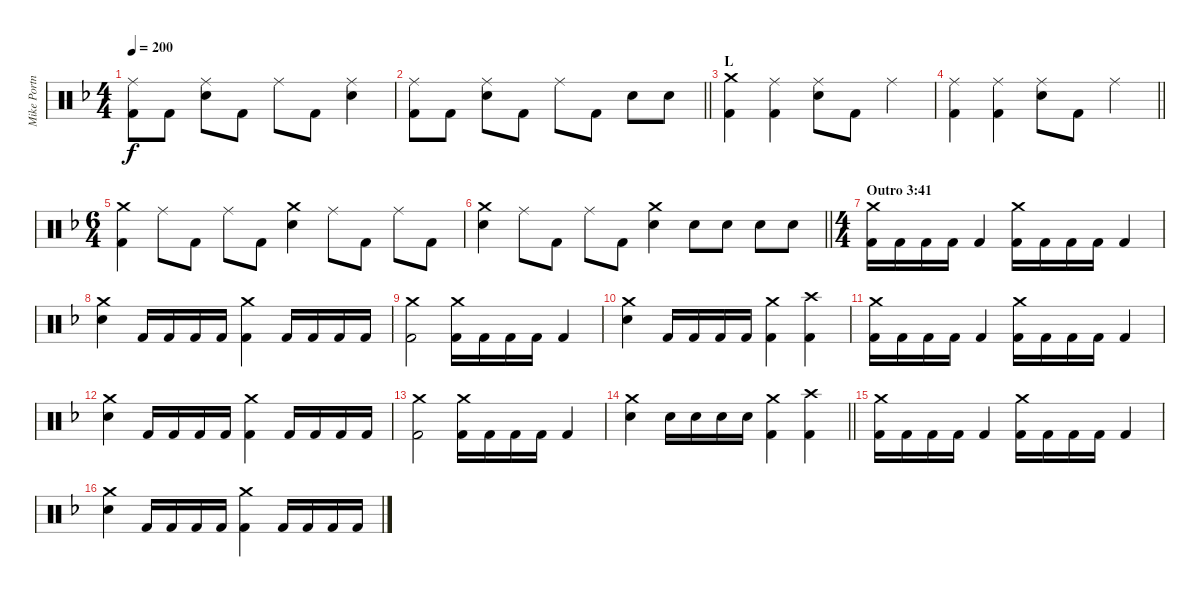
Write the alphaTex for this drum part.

\track ("Mike Portnoy (Drums)" "Mike Portn") {instrument percussion}
\staff {score}
\articulation defaults
\ts (4 4)
\tempo 200
\clef neutral
\ks f
("Ride (middle)" "Kick (hit) 2").8{dy f} "Kick (hit) 2".8 ("Ride (middle)" "Electric Snare (hit)").8 "Kick (hit) 2".8 "Ride (middle)".8 "Kick (hit) 2".8 ("Ride (middle)" "Electric Snare (hit)").4 |
\barLineRight lightlight
("Ride (middle)" "Kick (hit) 2").8 "Kick (hit) 2".8 ("Ride (middle)" "Electric Snare (hit)").8 "Kick (hit) 2".8 "Ride (middle)".8 "Kick (hit) 2".8 "Electric Snare (hit)".8 "Electric Snare (hit)".8 |
\section ("" "L")
("Crash medium (hit)" "Kick (hit) 2").4 ("Ride (middle)" "Kick (hit) 2").4 ("Ride (middle)" "Electric Snare (hit)").8 "Kick (hit) 2".8 "Ride (middle)".4 |
\barLineRight lightlight
("Ride (middle)" "Kick (hit) 2").4 ("Ride (middle)" "Kick (hit) 2").4 ("Ride (middle)" "Electric Snare (hit)").8 "Kick (hit) 2".8 "Ride (middle)".4 |
\ts (6 4)
\section ("" "")
("Crash medium (hit)" "Kick (hit) 2").4 "Ride (middle)".8 "Kick (hit) 2".8 "Ride (middle)".8 "Kick (hit) 2".8 ("Crash medium (hit)" "Electric Snare (hit)").4 "Ride (middle)".8 "Kick (hit) 2".8 "Ride (middle)".8 "Kick (hit) 2".8 |
\barLineRight lightlight
("Crash medium (hit)" "Electric Snare (hit)").4 "Ride (middle)".8 "Kick (hit) 2".8 "Ride (middle)".8 "Kick (hit) 2".8 ("Crash medium (hit)" "Electric Snare (hit)").4 "Electric Snare (hit)".8 "Electric Snare (hit)".8 "Electric Snare (hit)".8 "Electric Snare (hit)".8 |
\ts (4 4)
\section ("" "Outro 3:41")
("Crash medium (hit)" "Kick (hit) 2").16 "Kick (hit) 2".16 "Kick (hit) 2".16 "Kick (hit) 2".16 "Kick (hit) 2".4 ("Crash medium (hit)" "Kick (hit) 2").16 "Kick (hit) 2".16 "Kick (hit) 2".16 "Kick (hit) 2".16 "Kick (hit) 2".4 |
("Crash medium (hit)" "Electric Snare (hit)").4 "Kick (hit) 2".16 "Kick (hit) 2".16 "Kick (hit) 2".16 "Kick (hit) 2".16 ("Crash medium (hit)" "Kick (hit) 2").4 "Kick (hit) 2".16 "Kick (hit) 2".16 "Kick (hit) 2".16 "Kick (hit) 2".16 |
("Crash medium (hit)" "Kick (hit) 2").2 ("Crash medium (hit)" "Kick (hit) 2").16 "Kick (hit) 2".16 "Kick (hit) 2".16 "Kick (hit) 2".16 "Kick (hit) 2".4 |
("Crash medium (hit)" "Electric Snare (hit)").4 "Kick (hit) 2".16 "Kick (hit) 2".16 "Kick (hit) 2".16 "Kick (hit) 2".16 ("Crash medium (hit)" "Kick (hit) 2").4 ("Crash high (hit)" "Kick (hit) 2").4 |
("Crash medium (hit)" "Kick (hit) 2").16 "Kick (hit) 2".16 "Kick (hit) 2".16 "Kick (hit) 2".16 "Kick (hit) 2".4 ("Crash medium (hit)" "Kick (hit) 2").16 "Kick (hit) 2".16 "Kick (hit) 2".16 "Kick (hit) 2".16 "Kick (hit) 2".4 |
("Crash medium (hit)" "Electric Snare (hit)").4 "Kick (hit) 2".16 "Kick (hit) 2".16 "Kick (hit) 2".16 "Kick (hit) 2".16 ("Crash medium (hit)" "Kick (hit) 2").4 "Kick (hit) 2".16 "Kick (hit) 2".16 "Kick (hit) 2".16 "Kick (hit) 2".16 |
("Crash medium (hit)" "Kick (hit) 2").2 ("Crash medium (hit)" "Kick (hit) 2").16 "Kick (hit) 2".16 "Kick (hit) 2".16 "Kick (hit) 2".16 "Kick (hit) 2".4 |
\barLineRight lightlight
("Crash medium (hit)" "Electric Snare (hit)").4 "Electric Snare (hit)".16 "Electric Snare (hit)".16 "Electric Snare (hit)".16 "Electric Snare (hit)".16 ("Crash medium (hit)" "Kick (hit) 2").4 ("Crash high (hit)" "Kick (hit) 2").4 |
\section ("" "")
("Crash medium (hit)" "Kick (hit) 2").16 "Kick (hit) 2".16 "Kick (hit) 2".16 "Kick (hit) 2".16 "Kick (hit) 2".4 ("Crash medium (hit)" "Kick (hit) 2").16 "Kick (hit) 2".16 "Kick (hit) 2".16 "Kick (hit) 2".16 "Kick (hit) 2".4 |
("Crash medium (hit)" "Electric Snare (hit)").4 "Kick (hit) 2".16 "Kick (hit) 2".16 "Kick (hit) 2".16 "Kick (hit) 2".16 ("Crash medium (hit)" "Kick (hit) 2").4 "Kick (hit) 2".16 "Kick (hit) 2".16 "Kick (hit) 2".16 "Kick (hit) 2".16
